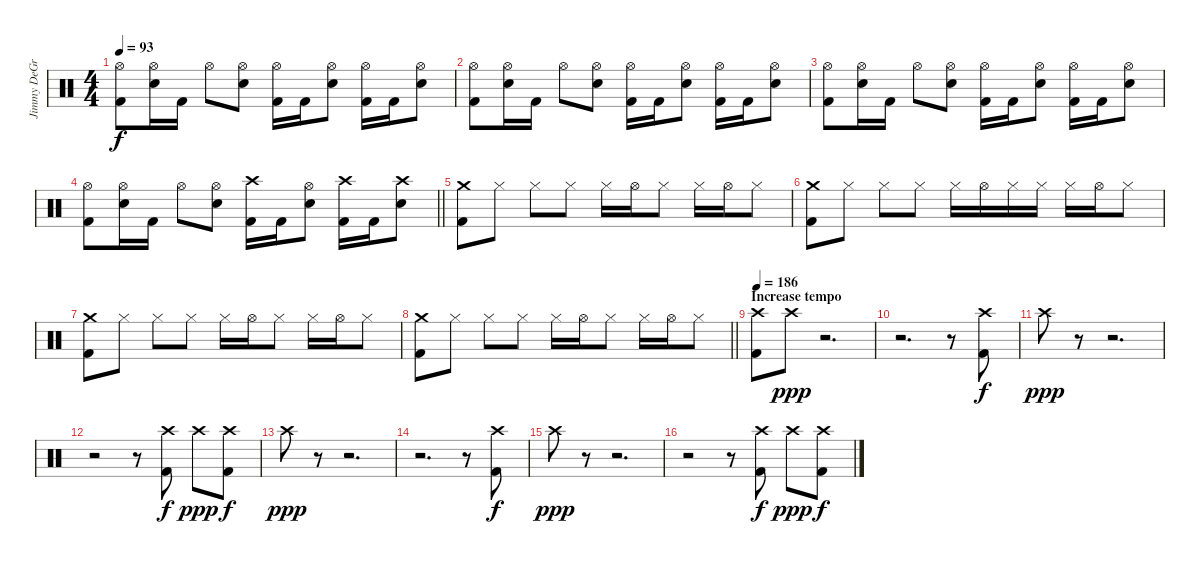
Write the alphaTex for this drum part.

\track ("Jimmy DeGrasso" "Jimmy DeGr") {instrument percussion}
\staff {score}
\articulation defaults
\ts (4 4)
\tempo 93
\clef neutral
\ks c
("Hi-Hat (open)" "Kick (hit) 2").8{dy f} ("Hi-Hat (open)" "Electric Snare (hit)").16 "Kick (hit) 2".16 "Hi-Hat (open)".8 ("Hi-Hat (open)" "Electric Snare (hit)").8 ("Hi-Hat (open)" "Kick (hit) 2").16 "Kick (hit) 2".16 ("Hi-Hat (open)" "Electric Snare (hit)").8 ("Hi-Hat (open)" "Kick (hit) 2").16 "Kick (hit) 2".16 ("Hi-Hat (open)" "Electric Snare (hit)").8 |
("Hi-Hat (open)" "Kick (hit) 2").8 ("Hi-Hat (open)" "Electric Snare (hit)").16 "Kick (hit) 2".16 "Hi-Hat (open)".8 ("Hi-Hat (open)" "Electric Snare (hit)").8 ("Hi-Hat (open)" "Kick (hit) 2").16 "Kick (hit) 2".16 ("Hi-Hat (open)" "Electric Snare (hit)").8 ("Hi-Hat (open)" "Kick (hit) 2").16 "Kick (hit) 2".16 ("Hi-Hat (open)" "Electric Snare (hit)").8 |
("Hi-Hat (open)" "Kick (hit) 2").8 ("Hi-Hat (open)" "Electric Snare (hit)").16 "Kick (hit) 2".16 "Hi-Hat (open)".8 ("Hi-Hat (open)" "Electric Snare (hit)").8 ("Hi-Hat (open)" "Kick (hit) 2").16 "Kick (hit) 2".16 ("Hi-Hat (open)" "Electric Snare (hit)").8 ("Hi-Hat (open)" "Kick (hit) 2").16 "Kick (hit) 2".16 ("Hi-Hat (open)" "Electric Snare (hit)").8 |
\barLineRight lightlight
("Hi-Hat (open)" "Kick (hit) 2").8 ("Hi-Hat (open)" "Electric Snare (hit)").16 "Kick (hit) 2".16 "Hi-Hat (open)".8 ("Hi-Hat (open)" "Electric Snare (hit)").8 ("Crash high (hit)" "Kick (hit) 2").16 "Kick (hit) 2".16 ("Hi-Hat (open)" "Electric Snare (hit)").8 ("Crash high (hit)" "Kick (hit) 2").16 "Kick (hit) 2".16 ("Crash high (hit)" "Electric Snare (hit)").8 |
\section ("" "")
("Crash medium (hit)" "Kick (hit) 2").8 "Hi-Hat (closed)".8 "Hi-Hat (closed)".8 "Hi-Hat (closed)".8 "Hi-Hat (closed)".16 "Hi-Hat (open)".16 "Hi-Hat (closed)".8 "Hi-Hat (closed)".16 "Hi-Hat (open)".16 "Hi-Hat (closed)".8 |
("Crash medium (hit)" "Kick (hit) 2").8 "Hi-Hat (closed)".8 "Hi-Hat (closed)".8 "Hi-Hat (closed)".8 "Hi-Hat (closed)".16 "Hi-Hat (open)".16 "Hi-Hat (closed)".16 "Hi-Hat (closed)".16 "Hi-Hat (closed)".16 "Hi-Hat (open)".16 "Hi-Hat (closed)".8 |
("Crash medium (hit)" "Kick (hit) 2").8 "Hi-Hat (closed)".8 "Hi-Hat (closed)".8 "Hi-Hat (closed)".8 "Hi-Hat (closed)".16 "Hi-Hat (open)".16 "Hi-Hat (closed)".8 "Hi-Hat (closed)".16 "Hi-Hat (open)".16 "Hi-Hat (closed)".8 |
\barLineRight lightlight
("Crash medium (hit)" "Kick (hit) 2").8 "Hi-Hat (closed)".8 "Hi-Hat (closed)".8 "Hi-Hat (closed)".8 "Hi-Hat (closed)".16 "Hi-Hat (open)".16 "Hi-Hat (closed)".8 "Hi-Hat (closed)".16 "Hi-Hat (open)".16 "Hi-Hat (closed)".8 |
\section ("" "Increase tempo")
\tempo 186
("Crash high (hit)" "Kick (hit) 2").8 "Crash high (hit)".8{dy ppp} r.2{d} |
r.2{d} r.8 ("Crash high (hit)" "Kick (hit) 2").8{dy f} |
"Crash high (hit)".8{dy ppp} r.8 r.2{d} |
r.2 r.8 ("Crash high (hit)" "Kick (hit) 2").8{dy f} "Crash high (hit)".8{dy ppp} ("Crash high (hit)" "Kick (hit) 2").8{dy f} |
"Crash high (hit)".8{dy ppp} r.8 r.2{d} |
r.2{d} r.8 ("Crash high (hit)" "Kick (hit) 2").8{dy f} |
"Crash high (hit)".8{dy ppp} r.8 r.2{d} |
r.2 r.8 ("Crash high (hit)" "Kick (hit) 2").8{dy f} "Crash high (hit)".8{dy ppp} ("Crash high (hit)" "Kick (hit) 2").8{dy f}
